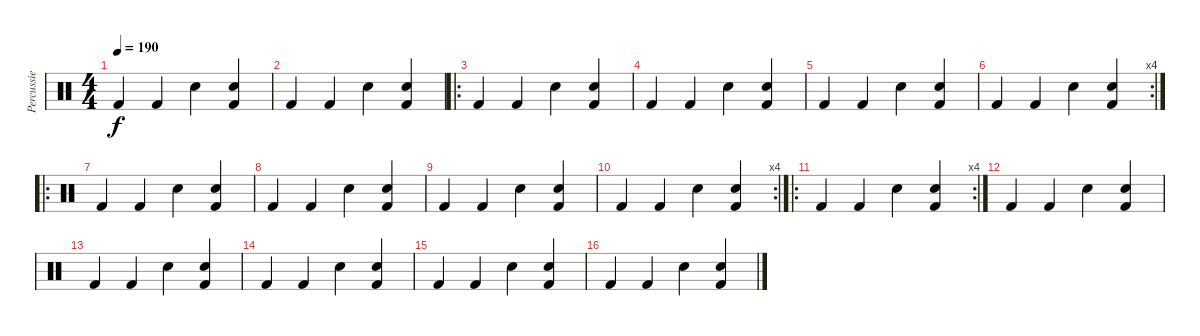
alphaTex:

\track ("Percussie" "Percussie") {instrument percussion}
\staff {score}
\articulation defaults
\ts (4 4)
\tempo 190
\clef neutral
\ks c "Kick (hit) 2".4{dy f} "Kick (hit) 2".4 "Snare (hit) 2".4
("Snare (hit) 2" "Kick (hit) 2").4 |
"Kick (hit) 2".4 "Kick (hit) 2".4 "Snare (hit) 2".4 ("Snare (hit) 2" "Kick (hit) 2").4 |
\ro "Kick (hit) 2".4 "Kick (hit) 2".4 "Snare (hit) 2".4
("Snare (hit) 2" "Kick (hit) 2").4 |
"Kick (hit) 2".4 "Kick (hit) 2".4 "Snare (hit) 2".4 ("Snare (hit) 2" "Kick (hit) 2").4 |
"Kick (hit) 2".4 "Kick (hit) 2".4 "Snare (hit) 2".4 ("Snare (hit) 2" "Kick (hit) 2").4 |
\rc 4 "Kick (hit) 2".4 "Kick (hit) 2".4 "Snare (hit) 2".4
("Snare (hit) 2" "Kick (hit) 2").4 |
\ro "Kick (hit) 2".4 "Kick (hit) 2".4 "Snare (hit) 2".4
("Snare (hit) 2" "Kick (hit) 2").4 |
"Kick (hit) 2".4 "Kick (hit) 2".4 "Snare (hit) 2".4 ("Snare (hit) 2" "Kick (hit) 2").4 |
"Kick (hit) 2".4 "Kick (hit) 2".4 "Snare (hit) 2".4 ("Snare (hit) 2" "Kick (hit) 2").4 |
\rc 4 "Kick (hit) 2".4 "Kick (hit) 2".4 "Snare (hit) 2".4
("Snare (hit) 2" "Kick (hit) 2").4 |
\ro
\rc 4 "Kick (hit) 2".4 "Kick (hit) 2".4 "Snare (hit) 2".4
("Snare (hit) 2" "Kick (hit) 2").4 |
"Kick (hit) 2".4 "Kick (hit) 2".4 "Snare (hit) 2".4 ("Snare (hit) 2" "Kick (hit) 2").4 |
"Kick (hit) 2".4 "Kick (hit) 2".4 "Snare (hit) 2".4 ("Snare (hit) 2" "Kick (hit) 2").4 |
"Kick (hit) 2".4 "Kick (hit) 2".4 "Snare (hit) 2".4 ("Snare (hit) 2" "Kick (hit) 2").4 |
"Kick (hit) 2".4 "Kick (hit) 2".4 "Snare (hit) 2".4 ("Snare (hit) 2" "Kick (hit) 2").4 |
"Kick (hit) 2".4 "Kick (hit) 2".4 "Snare (hit) 2".4 ("Snare (hit) 2" "Kick (hit) 2").4
